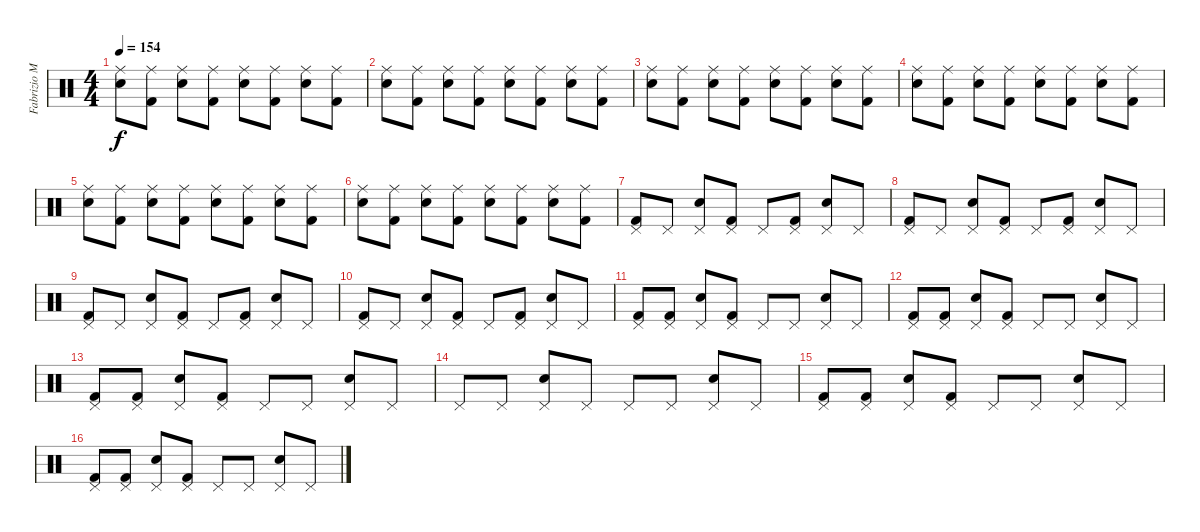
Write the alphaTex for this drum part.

\track ("Fabrizio Moretti" "Fabrizio M") {instrument percussion}
\staff {score}
\articulation defaults
\ts (4 4)
\tempo 154
\clef neutral
\ks c
("Ride (middle)" "Electric Snare (hit)").8{dy f} ("Ride (middle)" "Kick (hit) 2").8 ("Ride (middle)" "Electric Snare (hit)").8 ("Ride (middle)" "Kick (hit) 2").8 ("Ride (middle)" "Electric Snare (hit)").8 ("Ride (middle)" "Kick (hit) 2").8 ("Ride (middle)" "Electric Snare (hit)").8 ("Ride (middle)" "Kick (hit) 2").8 |
("Ride (middle)" "Electric Snare (hit)").8 ("Ride (middle)" "Kick (hit) 2").8 ("Ride (middle)" "Electric Snare (hit)").8 ("Ride (middle)" "Kick (hit) 2").8 ("Ride (middle)" "Electric Snare (hit)").8 ("Ride (middle)" "Kick (hit) 2").8 ("Ride (middle)" "Electric Snare (hit)").8 ("Ride (middle)" "Kick (hit) 2").8 |
("Ride (middle)" "Electric Snare (hit)").8 ("Ride (middle)" "Kick (hit) 2").8 ("Ride (middle)" "Electric Snare (hit)").8 ("Ride (middle)" "Kick (hit) 2").8 ("Ride (middle)" "Electric Snare (hit)").8 ("Ride (middle)" "Kick (hit) 2").8 ("Ride (middle)" "Electric Snare (hit)").8 ("Ride (middle)" "Kick (hit) 2").8 |
("Ride (middle)" "Electric Snare (hit)").8 ("Ride (middle)" "Kick (hit) 2").8 ("Ride (middle)" "Electric Snare (hit)").8 ("Ride (middle)" "Kick (hit) 2").8 ("Ride (middle)" "Electric Snare (hit)").8 ("Ride (middle)" "Kick (hit) 2").8 ("Ride (middle)" "Electric Snare (hit)").8 ("Ride (middle)" "Kick (hit) 2").8 |
("Ride (middle)" "Electric Snare (hit)").8 ("Ride (middle)" "Kick (hit) 2").8 ("Ride (middle)" "Electric Snare (hit)").8 ("Ride (middle)" "Kick (hit) 2").8 ("Ride (middle)" "Electric Snare (hit)").8 ("Ride (middle)" "Kick (hit) 2").8 ("Ride (middle)" "Electric Snare (hit)").8 ("Ride (middle)" "Kick (hit) 2").8 |
("Ride (middle)" "Electric Snare (hit)").8 ("Ride (middle)" "Kick (hit) 2").8 ("Ride (middle)" "Electric Snare (hit)").8 ("Ride (middle)" "Kick (hit) 2").8 ("Ride (middle)" "Electric Snare (hit)").8 ("Ride (middle)" "Kick (hit) 2").8 ("Ride (middle)" "Electric Snare (hit)").8 ("Ride (middle)" "Kick (hit) 2").8 |
("Pedal Hi-Hat (hit)" "Kick (hit) 2").8 "Pedal Hi-Hat (hit)".8 ("Pedal Hi-Hat (hit)" "Electric Snare (hit)").8 ("Pedal Hi-Hat (hit)" "Kick (hit) 2").8 "Pedal Hi-Hat (hit)".8 ("Pedal Hi-Hat (hit)" "Kick (hit) 2").8 ("Pedal Hi-Hat (hit)" "Electric Snare (hit)").8 "Pedal Hi-Hat (hit)".8 |
("Pedal Hi-Hat (hit)" "Kick (hit) 2").8 "Pedal Hi-Hat (hit)".8 ("Pedal Hi-Hat (hit)" "Electric Snare (hit)").8 ("Pedal Hi-Hat (hit)" "Kick (hit) 2").8 "Pedal Hi-Hat (hit)".8 ("Pedal Hi-Hat (hit)" "Kick (hit) 2").8 ("Pedal Hi-Hat (hit)" "Electric Snare (hit)").8 "Pedal Hi-Hat (hit)".8 |
("Pedal Hi-Hat (hit)" "Kick (hit) 2").8 "Pedal Hi-Hat (hit)".8 ("Pedal Hi-Hat (hit)" "Electric Snare (hit)").8 ("Pedal Hi-Hat (hit)" "Kick (hit) 2").8 "Pedal Hi-Hat (hit)".8 ("Pedal Hi-Hat (hit)" "Kick (hit) 2").8 ("Pedal Hi-Hat (hit)" "Electric Snare (hit)").8 "Pedal Hi-Hat (hit)".8 |
("Pedal Hi-Hat (hit)" "Kick (hit) 2").8 "Pedal Hi-Hat (hit)".8 ("Pedal Hi-Hat (hit)" "Electric Snare (hit)").8 ("Pedal Hi-Hat (hit)" "Kick (hit) 2").8 "Pedal Hi-Hat (hit)".8 ("Pedal Hi-Hat (hit)" "Kick (hit) 2").8 ("Pedal Hi-Hat (hit)" "Electric Snare (hit)").8 "Pedal Hi-Hat (hit)".8 |
("Pedal Hi-Hat (hit)" "Kick (hit) 2").8 ("Pedal Hi-Hat (hit)" "Kick (hit) 2").8 ("Pedal Hi-Hat (hit)" "Electric Snare (hit)").8 ("Pedal Hi-Hat (hit)" "Kick (hit) 2").8 "Pedal Hi-Hat (hit)".8 "Pedal Hi-Hat (hit)".8 ("Pedal Hi-Hat (hit)" "Electric Snare (hit)").8 "Pedal Hi-Hat (hit)".8 |
("Pedal Hi-Hat (hit)" "Kick (hit) 2").8 ("Pedal Hi-Hat (hit)" "Kick (hit) 2").8 ("Pedal Hi-Hat (hit)" "Electric Snare (hit)").8 ("Pedal Hi-Hat (hit)" "Kick (hit) 2").8 "Pedal Hi-Hat (hit)".8 "Pedal Hi-Hat (hit)".8 ("Pedal Hi-Hat (hit)" "Electric Snare (hit)").8 "Pedal Hi-Hat (hit)".8 |
("Pedal Hi-Hat (hit)" "Kick (hit) 2").8 ("Pedal Hi-Hat (hit)" "Kick (hit) 2").8 ("Pedal Hi-Hat (hit)" "Electric Snare (hit)").8 ("Pedal Hi-Hat (hit)" "Kick (hit) 2").8 "Pedal Hi-Hat (hit)".8 "Pedal Hi-Hat (hit)".8 ("Pedal Hi-Hat (hit)" "Electric Snare (hit)").8 "Pedal Hi-Hat (hit)".8 |
"Pedal Hi-Hat (hit)".8 "Pedal Hi-Hat (hit)".8 ("Pedal Hi-Hat (hit)" "Electric Snare (hit)").8 "Pedal Hi-Hat (hit)".8 "Pedal Hi-Hat (hit)".8 "Pedal Hi-Hat (hit)".8 ("Pedal Hi-Hat (hit)" "Electric Snare (hit)").8 "Pedal Hi-Hat (hit)".8 |
("Pedal Hi-Hat (hit)" "Kick (hit) 2").8 ("Pedal Hi-Hat (hit)" "Kick (hit) 2").8 ("Pedal Hi-Hat (hit)" "Electric Snare (hit)").8 ("Pedal Hi-Hat (hit)" "Kick (hit) 2").8 "Pedal Hi-Hat (hit)".8 "Pedal Hi-Hat (hit)".8 ("Pedal Hi-Hat (hit)" "Electric Snare (hit)").8 "Pedal Hi-Hat (hit)".8 |
("Pedal Hi-Hat (hit)" "Kick (hit) 2").8 ("Pedal Hi-Hat (hit)" "Kick (hit) 2").8 ("Pedal Hi-Hat (hit)" "Electric Snare (hit)").8 ("Pedal Hi-Hat (hit)" "Kick (hit) 2").8 "Pedal Hi-Hat (hit)".8 "Pedal Hi-Hat (hit)".8 ("Pedal Hi-Hat (hit)" "Electric Snare (hit)").8 "Pedal Hi-Hat (hit)".8
